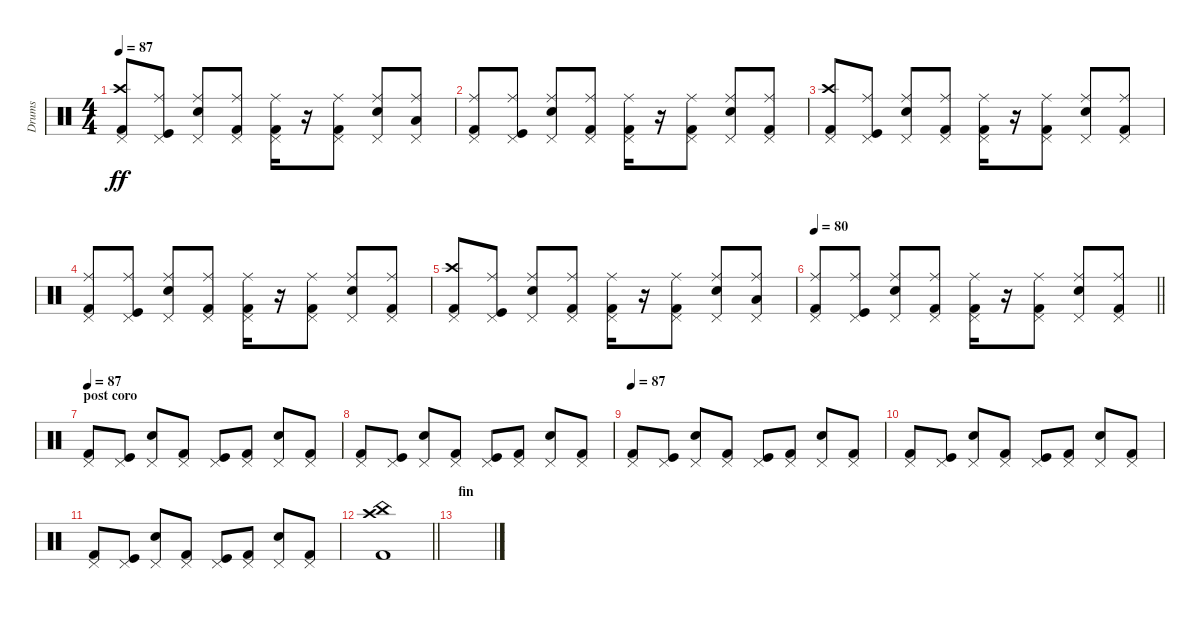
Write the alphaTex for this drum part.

\track ("Drums" "Drums") {instrument percussion}
\staff {score}
\articulation defaults
\ts (4 4)
\tempo 87
\clef neutral
\ks c
("Kick (hit) 2" "Crash high (hit)" "Pedal Hi-Hat (hit)").8{dy ff} ("Kick (hit)" "Ride (middle)" "Pedal Hi-Hat (hit)").8 ("Snare (hit) 2" "Ride (middle)" "Pedal Hi-Hat (hit)").8 ("Kick (hit) 2" "Ride (middle)" "Pedal Hi-Hat (hit)").8 ("Kick (hit) 2" "Ride (middle)" "Pedal Hi-Hat (hit)").16 r.16 ("Kick (hit) 2" "Ride (middle)" "Pedal Hi-Hat (hit)").8 ("Snare (hit) 2" "Ride (middle)" "Pedal Hi-Hat (hit)").8 ("Low Tom (hit)" "Ride (middle)" "Pedal Hi-Hat (hit)").8 |
("Kick (hit) 2" "Ride (middle)" "Pedal Hi-Hat (hit)").8 ("Kick (hit)" "Ride (middle)" "Pedal Hi-Hat (hit)").8 ("Snare (hit) 2" "Ride (middle)" "Pedal Hi-Hat (hit)").8 ("Kick (hit) 2" "Ride (middle)" "Pedal Hi-Hat (hit)").8 ("Kick (hit) 2" "Ride (middle)" "Pedal Hi-Hat (hit)").16 r.16 ("Kick (hit) 2" "Ride (middle)" "Pedal Hi-Hat (hit)").8 ("Snare (hit) 2" "Ride (middle)" "Pedal Hi-Hat (hit)").8 ("Kick (hit) 2" "Ride (middle)" "Pedal Hi-Hat (hit)").8 |
("Kick (hit) 2" "Crash high (hit)" "Pedal Hi-Hat (hit)").8 ("Kick (hit)" "Ride (middle)" "Pedal Hi-Hat (hit)").8 ("Snare (hit) 2" "Ride (middle)" "Pedal Hi-Hat (hit)").8 ("Kick (hit) 2" "Ride (middle)" "Pedal Hi-Hat (hit)").8 ("Kick (hit) 2" "Ride (middle)" "Pedal Hi-Hat (hit)").16 r.16 ("Kick (hit) 2" "Ride (middle)" "Pedal Hi-Hat (hit)").8 ("Snare (hit) 2" "Ride (middle)" "Pedal Hi-Hat (hit)").8 ("Kick (hit) 2" "Ride (middle)" "Pedal Hi-Hat (hit)").8 |
("Kick (hit) 2" "Ride (middle)" "Pedal Hi-Hat (hit)").8 ("Kick (hit)" "Ride (middle)" "Pedal Hi-Hat (hit)").8 ("Snare (hit) 2" "Ride (middle)" "Pedal Hi-Hat (hit)").8 ("Kick (hit) 2" "Ride (middle)" "Pedal Hi-Hat (hit)").8 ("Kick (hit) 2" "Ride (middle)" "Pedal Hi-Hat (hit)").16 r.16 ("Kick (hit) 2" "Ride (middle)" "Pedal Hi-Hat (hit)").8 ("Snare (hit) 2" "Ride (middle)" "Pedal Hi-Hat (hit)").8 ("Kick (hit) 2" "Ride (middle)" "Pedal Hi-Hat (hit)").8 |
("Kick (hit) 2" "Crash high (hit)" "Pedal Hi-Hat (hit)").8 ("Kick (hit)" "Ride (middle)" "Pedal Hi-Hat (hit)").8 ("Snare (hit) 2" "Ride (middle)" "Pedal Hi-Hat (hit)").8 ("Kick (hit) 2" "Ride (middle)" "Pedal Hi-Hat (hit)").8 ("Kick (hit) 2" "Ride (middle)" "Pedal Hi-Hat (hit)").16 r.16 ("Kick (hit) 2" "Ride (middle)" "Pedal Hi-Hat (hit)").8 ("Snare (hit) 2" "Ride (middle)" "Pedal Hi-Hat (hit)").8 ("Low Tom (hit)" "Ride (middle)" "Pedal Hi-Hat (hit)").8 |
\tempo 80
\barLineRight lightlight
("Kick (hit) 2" "Ride (middle)" "Pedal Hi-Hat (hit)").8 ("Kick (hit)" "Ride (middle)" "Pedal Hi-Hat (hit)").8 ("Snare (hit) 2" "Ride (middle)" "Pedal Hi-Hat (hit)").8 ("Kick (hit) 2" "Ride (middle)" "Pedal Hi-Hat (hit)").8 ("Kick (hit) 2" "Ride (middle)" "Pedal Hi-Hat (hit)").16 r.16 ("Kick (hit) 2" "Ride (middle)" "Pedal Hi-Hat (hit)").8 ("Snare (hit) 2" "Ride (middle)" "Pedal Hi-Hat (hit)").8 ("Kick (hit) 2" "Ride (middle)" "Pedal Hi-Hat (hit)").8 |
\section ("" "post coro")
\tempo 87
("Kick (hit) 2" "Pedal Hi-Hat (hit)").8 ("Kick (hit)" "Pedal Hi-Hat (hit)").8 ("Snare (hit) 2" "Pedal Hi-Hat (hit)").8 ("Kick (hit) 2" "Pedal Hi-Hat (hit)").8 ("Kick (hit)" "Pedal Hi-Hat (hit)").8 ("Kick (hit) 2" "Pedal Hi-Hat (hit)").8 ("Snare (hit) 2" "Pedal Hi-Hat (hit)").8 ("Kick (hit) 2" "Pedal Hi-Hat (hit)").8 |
("Kick (hit) 2" "Pedal Hi-Hat (hit)").8 ("Kick (hit)" "Pedal Hi-Hat (hit)").8 ("Snare (hit) 2" "Pedal Hi-Hat (hit)").8 ("Kick (hit) 2" "Pedal Hi-Hat (hit)").8 ("Kick (hit)" "Pedal Hi-Hat (hit)").8 ("Kick (hit) 2" "Pedal Hi-Hat (hit)").8 ("Snare (hit) 2" "Pedal Hi-Hat (hit)").8 ("Kick (hit) 2" "Pedal Hi-Hat (hit)").8 |
\tempo 87
("Kick (hit) 2" "Pedal Hi-Hat (hit)").8 ("Kick (hit)" "Pedal Hi-Hat (hit)").8 ("Snare (hit) 2" "Pedal Hi-Hat (hit)").8 ("Kick (hit) 2" "Pedal Hi-Hat (hit)").8 ("Kick (hit)" "Pedal Hi-Hat (hit)").8 ("Kick (hit) 2" "Pedal Hi-Hat (hit)").8 ("Snare (hit) 2" "Pedal Hi-Hat (hit)").8 ("Kick (hit) 2" "Pedal Hi-Hat (hit)").8 |
("Kick (hit) 2" "Pedal Hi-Hat (hit)").8 ("Kick (hit)" "Pedal Hi-Hat (hit)").8 ("Snare (hit) 2" "Pedal Hi-Hat (hit)").8 ("Kick (hit) 2" "Pedal Hi-Hat (hit)").8 ("Kick (hit)" "Pedal Hi-Hat (hit)").8 ("Kick (hit) 2" "Pedal Hi-Hat (hit)").8 ("Snare (hit) 2" "Pedal Hi-Hat (hit)").8 ("Kick (hit) 2" "Pedal Hi-Hat (hit)").8 |
("Kick (hit) 2" "Pedal Hi-Hat (hit)").8 ("Kick (hit)" "Pedal Hi-Hat (hit)").8 ("Snare (hit) 2" "Pedal Hi-Hat (hit)").8 ("Kick (hit) 2" "Pedal Hi-Hat (hit)").8 ("Kick (hit)" "Pedal Hi-Hat (hit)").8 ("Kick (hit) 2" "Pedal Hi-Hat (hit)").8 ("Snare (hit) 2" "Pedal Hi-Hat (hit)").8 ("Kick (hit) 2" "Pedal Hi-Hat (hit)").8 |
\barLineRight lightlight
("China (hit)" "Kick (hit) 2" "Crash high (hit)").1 |
\section ("" "fin")
